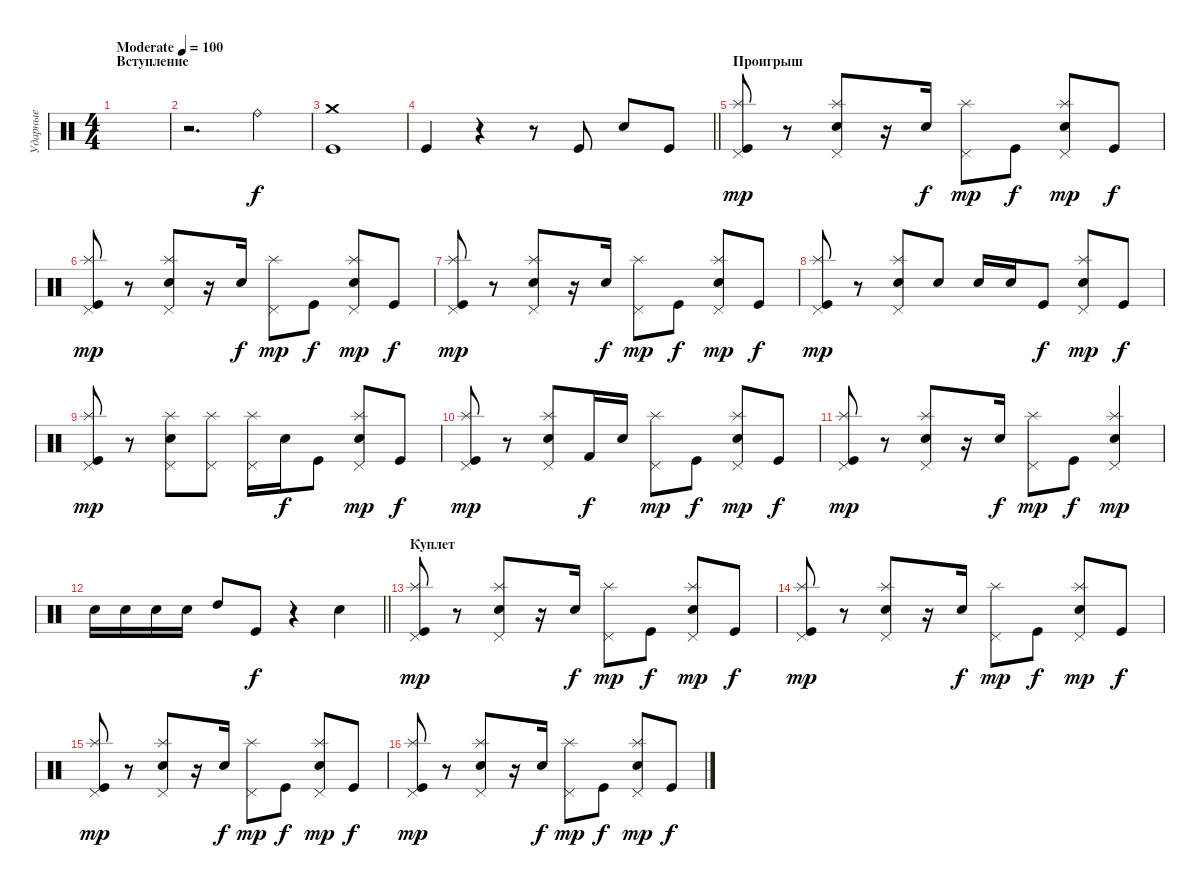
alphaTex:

\track ("Ударные" "Ударные") {instrument percussion}
\staff {score}
\articulation defaults
\ts (4 4)
\section ("" "Вступление")
\tempo (100 "Moderate")
\clef neutral
\ks c
|
r.2{d} "Ride (bell)".4 |
("Crash medium (hit)" "Kick (hit)").1 |
\barLineRight lightlight "Kick (hit)".4{dy f}
r.4 r.8 "Kick (hit)".8 "Electric Snare (hit)".8 "Kick (hit)".8 |
\section ("" "Проигрыш")
("Splash (hit)" "Pedal Hi-Hat (hit)" "Kick (hit)").8{dy mp} r.8 ("Splash (hit)" "Pedal Hi-Hat (hit)" "Electric Snare (hit)").8 r.16 "Electric Snare (hit)".16{dy f} ("Splash (hit)" "Pedal Hi-Hat (hit)").8{dy mp} "Kick (hit)".8{dy f} ("Splash (hit)" "Pedal Hi-Hat (hit)" "Electric Snare (hit)").8{dy mp} "Kick (hit)".8{dy f} |
("Splash (hit)" "Pedal Hi-Hat (hit)" "Kick (hit)").8{dy mp} r.8 ("Splash (hit)" "Pedal Hi-Hat (hit)" "Electric Snare (hit)").8 r.16 "Electric Snare (hit)".16{dy f} ("Splash (hit)" "Pedal Hi-Hat (hit)").8{dy mp} "Kick (hit)".8{dy f} ("Splash (hit)" "Pedal Hi-Hat (hit)" "Electric Snare (hit)").8{dy mp} "Kick (hit)".8{dy f} |
("Splash (hit)" "Pedal Hi-Hat (hit)" "Kick (hit)").8{dy mp} r.8 ("Splash (hit)" "Pedal Hi-Hat (hit)" "Electric Snare (hit)").8 r.16 "Electric Snare (hit)".16{dy f} ("Splash (hit)" "Pedal Hi-Hat (hit)").8{dy mp} "Kick (hit)".8{dy f} ("Splash (hit)" "Pedal Hi-Hat (hit)" "Electric Snare (hit)").8{dy mp} "Kick (hit)".8{dy f} |
("Splash (hit)" "Pedal Hi-Hat (hit)" "Kick (hit)").8{dy mp} r.8 ("Splash (hit)" "Pedal Hi-Hat (hit)" "Electric Snare (hit)").8 "Electric Snare (hit)".8 "Electric Snare (hit)".16 "Electric Snare (hit)".16 "Kick (hit)".8{dy f} ("Splash (hit)" "Pedal Hi-Hat (hit)" "Electric Snare (hit)").8{dy mp} "Kick (hit)".8{dy f} |
("Splash (hit)" "Pedal Hi-Hat (hit)" "Kick (hit)").8{dy mp} r.8 ("Splash (hit)" "Pedal Hi-Hat (hit)" "Electric Snare (hit)").8 ("Splash (hit)" "Pedal Hi-Hat (hit)").8 ("Splash (hit)" "Pedal Hi-Hat (hit)").16 "Electric Snare (hit)".16{dy f} "Kick (hit)".8 ("Splash (hit)" "Pedal Hi-Hat (hit)" "Electric Snare (hit)").8{dy mp} "Kick (hit)".8{dy f} |
("Splash (hit)" "Pedal Hi-Hat (hit)" "Kick (hit)").8{dy mp} r.8 ("Splash (hit)" "Pedal Hi-Hat (hit)" "Electric Snare (hit)").8 "Kick (hit) 2".16{dy f} "Electric Snare (hit)".16 ("Splash (hit)" "Pedal Hi-Hat (hit)").8{dy mp} "Kick (hit)".8{dy f} ("Splash (hit)" "Pedal Hi-Hat (hit)" "Electric Snare (hit)").8{dy mp} "Kick (hit)".8{dy f} |
("Splash (hit)" "Pedal Hi-Hat (hit)" "Kick (hit)").8{dy mp} r.8 ("Splash (hit)" "Pedal Hi-Hat (hit)" "Electric Snare (hit)").8 r.16 "Electric Snare (hit)".16{dy f} ("Splash (hit)" "Pedal Hi-Hat (hit)").8{dy mp} "Kick (hit)".8{dy f} ("Splash (hit)" "Pedal Hi-Hat (hit)" "Electric Snare (hit)").4{dy mp} |
\barLineRight lightlight "Electric Snare (hit)".16 "Electric Snare (hit)".16 "Electric Snare (hit)".16 "Electric Snare (hit)".16 "High Tom (hit)".8 "Kick (hit)".8{dy f}
r.4 "Electric Snare (hit)".4 |
\section ("" "Куплет")
("Splash (hit)" "Pedal Hi-Hat (hit)" "Kick (hit)").8{dy mp} r.8 ("Splash (hit)" "Pedal Hi-Hat (hit)" "Electric Snare (hit)").8 r.16 "Electric Snare (hit)".16{dy f} ("Splash (hit)" "Pedal Hi-Hat (hit)").8{dy mp} "Kick (hit)".8{dy f} ("Splash (hit)" "Pedal Hi-Hat (hit)" "Electric Snare (hit)").8{dy mp} "Kick (hit)".8{dy f} |
("Splash (hit)" "Pedal Hi-Hat (hit)" "Kick (hit)").8{dy mp} r.8 ("Splash (hit)" "Pedal Hi-Hat (hit)" "Electric Snare (hit)").8 r.16 "Electric Snare (hit)".16{dy f} ("Splash (hit)" "Pedal Hi-Hat (hit)").8{dy mp} "Kick (hit)".8{dy f} ("Splash (hit)" "Pedal Hi-Hat (hit)" "Electric Snare (hit)").8{dy mp} "Kick (hit)".8{dy f} |
("Splash (hit)" "Pedal Hi-Hat (hit)" "Kick (hit)").8{dy mp} r.8 ("Splash (hit)" "Pedal Hi-Hat (hit)" "Electric Snare (hit)").8 r.16 "Electric Snare (hit)".16{dy f} ("Splash (hit)" "Pedal Hi-Hat (hit)").8{dy mp} "Kick (hit)".8{dy f} ("Splash (hit)" "Pedal Hi-Hat (hit)" "Electric Snare (hit)").8{dy mp} "Kick (hit)".8{dy f} |
("Splash (hit)" "Pedal Hi-Hat (hit)" "Kick (hit)").8{dy mp} r.8 ("Splash (hit)" "Pedal Hi-Hat (hit)" "Electric Snare (hit)").8 r.16 "Electric Snare (hit)".16{dy f} ("Splash (hit)" "Pedal Hi-Hat (hit)").8{dy mp} "Kick (hit)".8{dy f} ("Splash (hit)" "Pedal Hi-Hat (hit)" "Electric Snare (hit)").8{dy mp} "Kick (hit)".8{dy f}
